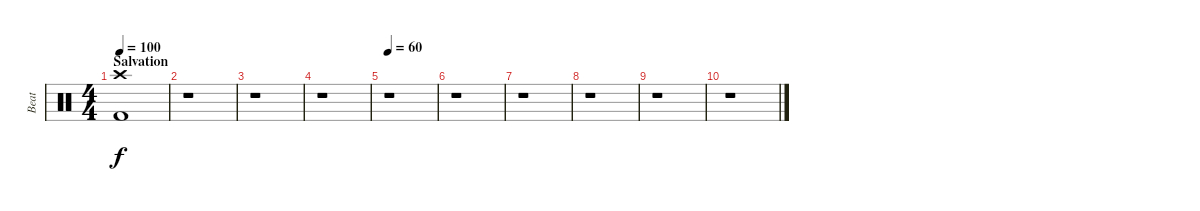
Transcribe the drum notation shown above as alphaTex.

\track ("Beat" "Beat") {instrument percussion}
\staff {score}
\articulation defaults
\ts (4 4)
\section ("" "Salvation")
\tempo 100
\clef neutral
\ks c
("Crash high (hit)" "Kick (hit) 2").1{dy f} |
r.1 |
r.1 |
r.1 |
\tempo 60
r.1 |
r.1 |
r.1 |
r.1 |
r.1 |
r.1
